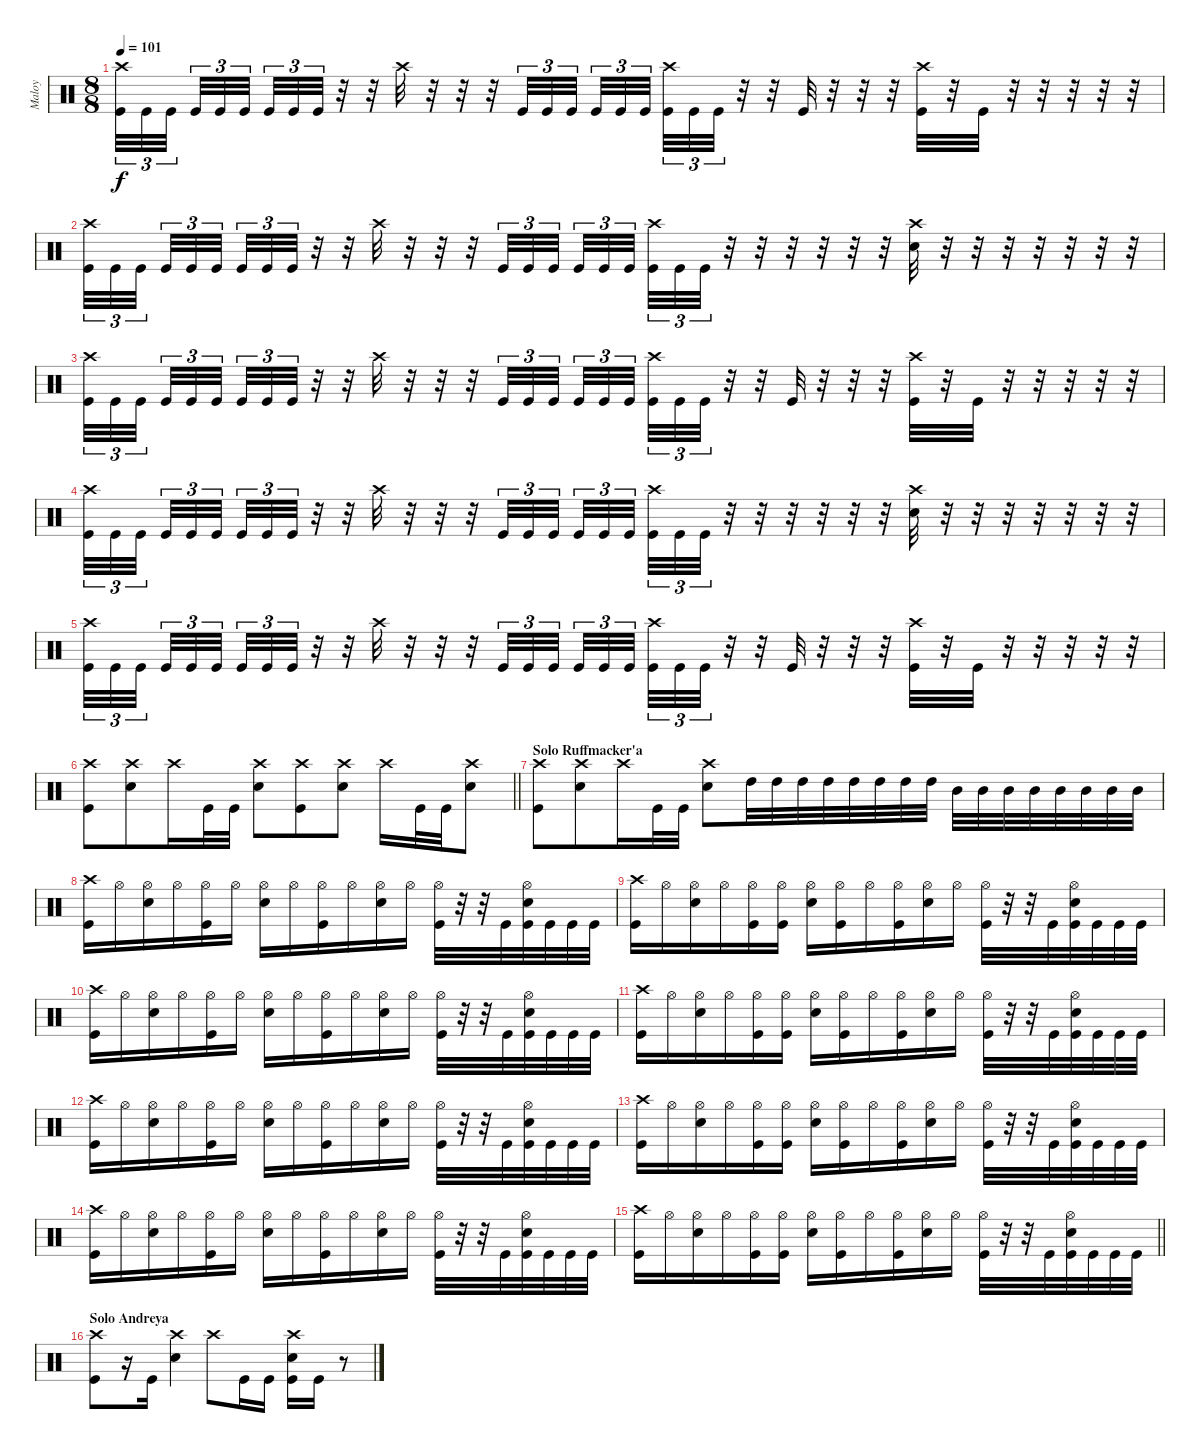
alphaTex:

\track ("Maloy" "Maloy") {instrument percussion}
\staff {score}
\articulation defaults
\ts (8 8)
\tempo 101
\clef neutral
\ks c
("Crash high (hit)" "Kick (hit)").32{tu (3 2) dy f} "Kick (hit)".32{tu (3 2)} "Kick (hit)".32{tu (3 2) beam splitsecondary} "Kick (hit)".32{tu (3 2)} "Kick (hit)".32{tu (3 2)} "Kick (hit)".32{tu (3 2)} "Kick (hit)".32{tu (3 2)} "Kick (hit)".32{tu (3 2)} "Kick (hit)".32{tu (3 2)} r.32 r.32 "Crash high (hit)".32 r.32 r.32 r.32 "Kick (hit)".32{tu (3 2)} "Kick (hit)".32{tu (3 2)} "Kick (hit)".32{tu (3 2) beam splitsecondary} "Kick (hit)".32{tu (3 2)} "Kick (hit)".32{tu (3 2)} "Kick (hit)".32{tu (3 2)} ("Crash high (hit)" "Kick (hit)").32{tu (3 2)} "Kick (hit)".32{tu (3 2)} "Kick (hit)".32{tu (3 2)} r.32 r.32 "Kick (hit)".32 r.32 r.32 r.32 ("Crash high (hit)" "Kick (hit)").32 r.32 "Kick (hit)".32 r.32 r.32 r.32 r.32 r.32 |
("Crash high (hit)" "Kick (hit)").32{tu (3 2)} "Kick (hit)".32{tu (3 2)} "Kick (hit)".32{tu (3 2) beam splitsecondary} "Kick (hit)".32{tu (3 2)} "Kick (hit)".32{tu (3 2)} "Kick (hit)".32{tu (3 2)} "Kick (hit)".32{tu (3 2)} "Kick (hit)".32{tu (3 2)} "Kick (hit)".32{tu (3 2)} r.32 r.32 "Crash high (hit)".32 r.32 r.32 r.32 "Kick (hit)".32{tu (3 2)} "Kick (hit)".32{tu (3 2)} "Kick (hit)".32{tu (3 2) beam splitsecondary} "Kick (hit)".32{tu (3 2)} "Kick (hit)".32{tu (3 2)} "Kick (hit)".32{tu (3 2)} ("Crash high (hit)" "Kick (hit)").32{tu (3 2)} "Kick (hit)".32{tu (3 2)} "Kick (hit)".32{tu (3 2)} r.32 r.32 r.32 r.32 r.32 r.32 ("Crash high (hit)" "Electric Snare (hit)").32 r.32 r.32 r.32 r.32 r.32 r.32 r.32 |
("Crash high (hit)" "Kick (hit)").32{tu (3 2)} "Kick (hit)".32{tu (3 2)} "Kick (hit)".32{tu (3 2) beam splitsecondary} "Kick (hit)".32{tu (3 2)} "Kick (hit)".32{tu (3 2)} "Kick (hit)".32{tu (3 2)} "Kick (hit)".32{tu (3 2)} "Kick (hit)".32{tu (3 2)} "Kick (hit)".32{tu (3 2)} r.32 r.32 "Crash high (hit)".32 r.32 r.32 r.32 "Kick (hit)".32{tu (3 2)} "Kick (hit)".32{tu (3 2)} "Kick (hit)".32{tu (3 2) beam splitsecondary} "Kick (hit)".32{tu (3 2)} "Kick (hit)".32{tu (3 2)} "Kick (hit)".32{tu (3 2)} ("Crash high (hit)" "Kick (hit)").32{tu (3 2)} "Kick (hit)".32{tu (3 2)} "Kick (hit)".32{tu (3 2)} r.32 r.32 "Kick (hit)".32 r.32 r.32 r.32 ("Crash high (hit)" "Kick (hit)").32 r.32 "Kick (hit)".32 r.32 r.32 r.32 r.32 r.32 |
("Crash high (hit)" "Kick (hit)").32{tu (3 2)} "Kick (hit)".32{tu (3 2)} "Kick (hit)".32{tu (3 2) beam splitsecondary} "Kick (hit)".32{tu (3 2)} "Kick (hit)".32{tu (3 2)} "Kick (hit)".32{tu (3 2)} "Kick (hit)".32{tu (3 2)} "Kick (hit)".32{tu (3 2)} "Kick (hit)".32{tu (3 2)} r.32 r.32 "Crash high (hit)".32 r.32 r.32 r.32 "Kick (hit)".32{tu (3 2)} "Kick (hit)".32{tu (3 2)} "Kick (hit)".32{tu (3 2) beam splitsecondary} "Kick (hit)".32{tu (3 2)} "Kick (hit)".32{tu (3 2)} "Kick (hit)".32{tu (3 2)} ("Crash high (hit)" "Kick (hit)").32{tu (3 2)} "Kick (hit)".32{tu (3 2)} "Kick (hit)".32{tu (3 2)} r.32 r.32 r.32 r.32 r.32 r.32 ("Crash high (hit)" "Electric Snare (hit)").32 r.32 r.32 r.32 r.32 r.32 r.32 r.32 |
("Crash high (hit)" "Kick (hit)").32{tu (3 2)} "Kick (hit)".32{tu (3 2)} "Kick (hit)".32{tu (3 2) beam splitsecondary} "Kick (hit)".32{tu (3 2)} "Kick (hit)".32{tu (3 2)} "Kick (hit)".32{tu (3 2)} "Kick (hit)".32{tu (3 2)} "Kick (hit)".32{tu (3 2)} "Kick (hit)".32{tu (3 2)} r.32 r.32 "Crash high (hit)".32 r.32 r.32 r.32 "Kick (hit)".32{tu (3 2)} "Kick (hit)".32{tu (3 2)} "Kick (hit)".32{tu (3 2) beam splitsecondary} "Kick (hit)".32{tu (3 2)} "Kick (hit)".32{tu (3 2)} "Kick (hit)".32{tu (3 2)} ("Crash high (hit)" "Kick (hit)").32{tu (3 2)} "Kick (hit)".32{tu (3 2)} "Kick (hit)".32{tu (3 2)} r.32 r.32 "Kick (hit)".32 r.32 r.32 r.32 ("Crash high (hit)" "Kick (hit)").32 r.32 "Kick (hit)".32 r.32 r.32 r.32 r.32 r.32 |
\barLineRight lightlight
("Crash high (hit)" "Kick (hit)").8 ("Crash high (hit)" "Electric Snare (hit)").8 "Crash high (hit)".16 "Kick (hit)".32 "Kick (hit)".32 ("Crash high (hit)" "Electric Snare (hit)").8 ("Crash high (hit)" "Kick (hit)").8 ("Crash high (hit)" "Electric Snare (hit)").8 "Crash high (hit)".16 "Kick (hit)".32 "Kick (hit)".32 ("Crash high (hit)" "Electric Snare (hit)").8 |
\section ("" "Solo Ruffmacker'a")
("Crash high (hit)" "Kick (hit)").8 ("Crash high (hit)" "Electric Snare (hit)").8 "Crash high (hit)".16 "Kick (hit)".32 "Kick (hit)".32 ("Crash high (hit)" "Electric Snare (hit)").8 "High Tom (hit)".32 "High Tom (hit)".32 "High Tom (hit)".32 "High Tom (hit)".32 "High Tom (hit)".32 "High Tom (hit)".32 "High Tom (hit)".32 "High Tom (hit)".32 "Mid Tom (hit)".32 "Mid Tom (hit)".32 "Mid Tom (hit)".32 "Mid Tom (hit)".32 "Mid Tom (hit)".32 "Mid Tom (hit)".32 "Mid Tom (hit)".32 "Mid Tom (hit)".32 |
("Crash high (hit)" "Kick (hit)").16 "Hi-Hat (open)".16 ("Hi-Hat (open)" "Snare (hit) 2").16 "Hi-Hat (open)".16 ("Hi-Hat (open)" "Kick (hit)").16 "Hi-Hat (open)".16 ("Hi-Hat (open)" "Snare (hit) 2").16 "Hi-Hat (open)".16 ("Hi-Hat (open)" "Kick (hit)").16 "Hi-Hat (open)".16 ("Hi-Hat (open)" "Snare (hit) 2").16 "Hi-Hat (open)".16 ("Hi-Hat (open)" "Kick (hit)").32 r.32 r.32 "Kick (hit)".32 ("Hi-Hat (open)" "Snare (hit) 2" "Kick (hit)").32 "Kick (hit)".32 "Kick (hit)".32 "Kick (hit)".32 |
("Crash high (hit)" "Kick (hit)").16 "Hi-Hat (open)".16 ("Hi-Hat (open)" "Snare (hit) 2").16 "Hi-Hat (open)".16 ("Hi-Hat (open)" "Kick (hit)").16 ("Hi-Hat (open)" "Kick (hit)").16 ("Hi-Hat (open)" "Snare (hit) 2").16 ("Hi-Hat (open)" "Kick (hit)").16 "Hi-Hat (open)".16 ("Hi-Hat (open)" "Kick (hit)").16 ("Hi-Hat (open)" "Snare (hit) 2").16 "Hi-Hat (open)".16 ("Hi-Hat (open)" "Kick (hit)").32 r.32 r.32 "Kick (hit)".32 ("Hi-Hat (open)" "Snare (hit) 2" "Kick (hit)").32 "Kick (hit)".32 "Kick (hit)".32 "Kick (hit)".32 |
("Crash high (hit)" "Kick (hit)").16 "Hi-Hat (open)".16 ("Hi-Hat (open)" "Snare (hit) 2").16 "Hi-Hat (open)".16 ("Hi-Hat (open)" "Kick (hit)").16 "Hi-Hat (open)".16 ("Hi-Hat (open)" "Snare (hit) 2").16 "Hi-Hat (open)".16 ("Hi-Hat (open)" "Kick (hit)").16 "Hi-Hat (open)".16 ("Hi-Hat (open)" "Snare (hit) 2").16 "Hi-Hat (open)".16 ("Hi-Hat (open)" "Kick (hit)").32 r.32 r.32 "Kick (hit)".32 ("Hi-Hat (open)" "Snare (hit) 2" "Kick (hit)").32 "Kick (hit)".32 "Kick (hit)".32 "Kick (hit)".32 |
("Crash high (hit)" "Kick (hit)").16 "Hi-Hat (open)".16 ("Hi-Hat (open)" "Snare (hit) 2").16 "Hi-Hat (open)".16 ("Hi-Hat (open)" "Kick (hit)").16 ("Hi-Hat (open)" "Kick (hit)").16 ("Hi-Hat (open)" "Snare (hit) 2").16 ("Hi-Hat (open)" "Kick (hit)").16 "Hi-Hat (open)".16 ("Hi-Hat (open)" "Kick (hit)").16 ("Hi-Hat (open)" "Snare (hit) 2").16 "Hi-Hat (open)".16 ("Hi-Hat (open)" "Kick (hit)").32 r.32 r.32 "Kick (hit)".32 ("Hi-Hat (open)" "Snare (hit) 2" "Kick (hit)").32 "Kick (hit)".32 "Kick (hit)".32 "Kick (hit)".32 |
("Crash high (hit)" "Kick (hit)").16 "Hi-Hat (open)".16 ("Hi-Hat (open)" "Snare (hit) 2").16 "Hi-Hat (open)".16 ("Hi-Hat (open)" "Kick (hit)").16 "Hi-Hat (open)".16 ("Hi-Hat (open)" "Snare (hit) 2").16 "Hi-Hat (open)".16 ("Hi-Hat (open)" "Kick (hit)").16 "Hi-Hat (open)".16 ("Hi-Hat (open)" "Snare (hit) 2").16 "Hi-Hat (open)".16 ("Hi-Hat (open)" "Kick (hit)").32 r.32 r.32 "Kick (hit)".32 ("Hi-Hat (open)" "Snare (hit) 2" "Kick (hit)").32 "Kick (hit)".32 "Kick (hit)".32 "Kick (hit)".32 |
("Crash high (hit)" "Kick (hit)").16 "Hi-Hat (open)".16 ("Hi-Hat (open)" "Snare (hit) 2").16 "Hi-Hat (open)".16 ("Hi-Hat (open)" "Kick (hit)").16 ("Hi-Hat (open)" "Kick (hit)").16 ("Hi-Hat (open)" "Snare (hit) 2").16 ("Hi-Hat (open)" "Kick (hit)").16 "Hi-Hat (open)".16 ("Hi-Hat (open)" "Kick (hit)").16 ("Hi-Hat (open)" "Snare (hit) 2").16 "Hi-Hat (open)".16 ("Hi-Hat (open)" "Kick (hit)").32 r.32 r.32 "Kick (hit)".32 ("Hi-Hat (open)" "Snare (hit) 2" "Kick (hit)").32 "Kick (hit)".32 "Kick (hit)".32 "Kick (hit)".32 |
("Crash high (hit)" "Kick (hit)").16 "Hi-Hat (open)".16 ("Hi-Hat (open)" "Snare (hit) 2").16 "Hi-Hat (open)".16 ("Hi-Hat (open)" "Kick (hit)").16 "Hi-Hat (open)".16 ("Hi-Hat (open)" "Snare (hit) 2").16 "Hi-Hat (open)".16 ("Hi-Hat (open)" "Kick (hit)").16 "Hi-Hat (open)".16 ("Hi-Hat (open)" "Snare (hit) 2").16 "Hi-Hat (open)".16 ("Hi-Hat (open)" "Kick (hit)").32 r.32 r.32 "Kick (hit)".32 ("Hi-Hat (open)" "Snare (hit) 2" "Kick (hit)").32 "Kick (hit)".32 "Kick (hit)".32 "Kick (hit)".32 |
\barLineRight lightlight
("Crash high (hit)" "Kick (hit)").16 "Hi-Hat (open)".16 ("Hi-Hat (open)" "Snare (hit) 2").16 "Hi-Hat (open)".16 ("Hi-Hat (open)" "Kick (hit)").16 ("Hi-Hat (open)" "Kick (hit)").16 ("Hi-Hat (open)" "Snare (hit) 2").16 ("Hi-Hat (open)" "Kick (hit)").16 "Hi-Hat (open)".16 ("Hi-Hat (open)" "Kick (hit)").16 ("Hi-Hat (open)" "Snare (hit) 2").16 "Hi-Hat (open)".16 ("Hi-Hat (open)" "Kick (hit)").32 r.32 r.32 "Kick (hit)".32 ("Hi-Hat (open)" "Snare (hit) 2" "Kick (hit)").32 "Kick (hit)".32 "Kick (hit)".32 "Kick (hit)".32 |
\section ("" "Solo Andreya")
("Crash high (hit)" "Kick (hit)").8 r.16 "Kick (hit)".16 ("Crash high (hit)" "Snare (hit) 2").4 "Crash high (hit)".8 "Kick (hit)".16 "Kick (hit)".16 ("Crash high (hit)" "Snare (hit) 2" "Kick (hit)").16 "Kick (hit)".16 r.8
